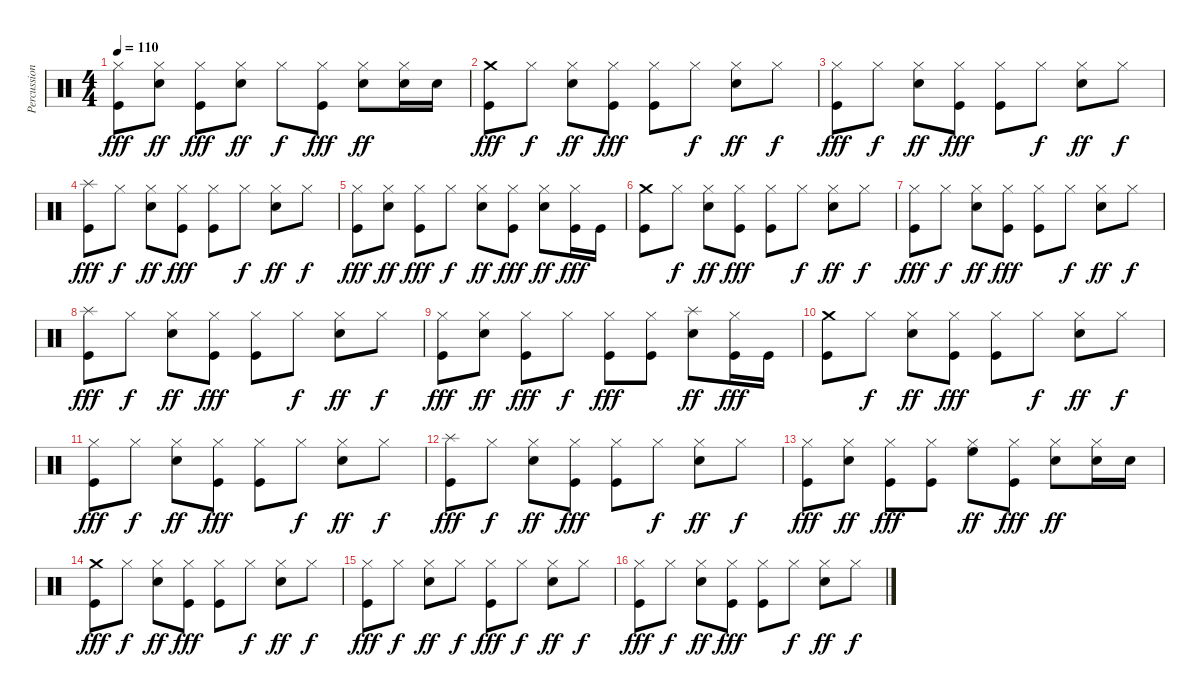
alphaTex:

\track ("Percussion" "Percussion") {instrument percussion}
\staff {score}
\articulation defaults
\ts (4 4)
\tempo 110
\clef neutral
\ks c
("Kick (hit)" "Hi-Hat (closed)").8{dy fff} ("Snare (hit) 2" "Hi-Hat (closed)").8{dy ff} ("Kick (hit)" "Hi-Hat (closed)").8{dy fff} ("Snare (hit) 2" "Hi-Hat (closed)").8{dy ff} "Hi-Hat (closed)".8{dy f} ("Kick (hit)" "Hi-Hat (closed)").8{dy fff} ("Snare (hit) 2" "Hi-Hat (closed)").8{dy ff} ("Snare (hit) 2" "Hi-Hat (closed)").16 "Snare (hit) 2".16 |
("Kick (hit)" "Crash medium (hit)").8{dy fff} "Hi-Hat (closed)".8{dy f} ("Snare (hit) 2" "Hi-Hat (closed)").8{dy ff} ("Kick (hit)" "Hi-Hat (closed)").8{dy fff} ("Kick (hit)" "Hi-Hat (closed)").8 "Hi-Hat (closed)".8{dy f} ("Snare (hit) 2" "Hi-Hat (closed)").8{dy ff} "Hi-Hat (closed)".8{dy f} |
("Kick (hit)" "Hi-Hat (closed)").8{dy fff} "Hi-Hat (closed)".8{dy f} ("Snare (hit) 2" "Hi-Hat (closed)").8{dy ff} ("Kick (hit)" "Hi-Hat (closed)").8{dy fff} ("Kick (hit)" "Hi-Hat (closed)").8 "Hi-Hat (closed)".8{dy f} ("Snare (hit) 2" "Hi-Hat (closed)").8{dy ff} "Hi-Hat (closed)".8{dy f} |
("Kick (hit)" "Splash (hit)").8{dy fff} "Hi-Hat (closed)".8{dy f} ("Snare (hit) 2" "Hi-Hat (closed)").8{dy ff} ("Kick (hit)" "Hi-Hat (closed)").8{dy fff} ("Kick (hit)" "Hi-Hat (closed)").8 "Hi-Hat (closed)".8{dy f} ("Snare (hit) 2" "Hi-Hat (closed)").8{dy ff} "Hi-Hat (closed)".8{dy f} |
("Kick (hit)" "Hi-Hat (closed)").8{dy fff} ("Snare (hit) 2" "Hi-Hat (closed)").8{dy ff} ("Kick (hit)" "Hi-Hat (closed)").8{dy fff} "Hi-Hat (closed)".8{dy f} ("Snare (hit) 2" "Hi-Hat (closed)").8{dy ff} ("Kick (hit)" "Hi-Hat (closed)").8{dy fff} ("Snare (hit) 2" "Hi-Hat (closed)").8{dy ff} ("Kick (hit)" "Hi-Hat (closed)").16{dy fff} "Kick (hit)".16 |
("Kick (hit)" "Crash medium (hit)").8 "Hi-Hat (closed)".8{dy f} ("Snare (hit) 2" "Hi-Hat (closed)").8{dy ff} ("Kick (hit)" "Hi-Hat (closed)").8{dy fff} ("Kick (hit)" "Hi-Hat (closed)").8 "Hi-Hat (closed)".8{dy f} ("Snare (hit) 2" "Hi-Hat (closed)").8{dy ff} "Hi-Hat (closed)".8{dy f} |
("Kick (hit)" "Hi-Hat (closed)").8{dy fff} "Hi-Hat (closed)".8{dy f} ("Snare (hit) 2" "Hi-Hat (closed)").8{dy ff} ("Kick (hit)" "Hi-Hat (closed)").8{dy fff} ("Kick (hit)" "Hi-Hat (closed)").8 "Hi-Hat (closed)".8{dy f} ("Snare (hit) 2" "Hi-Hat (closed)").8{dy ff} "Hi-Hat (closed)".8{dy f} |
("Kick (hit)" "Splash (hit)").8{dy fff} "Hi-Hat (closed)".8{dy f} ("Snare (hit) 2" "Hi-Hat (closed)").8{dy ff} ("Kick (hit)" "Hi-Hat (closed)").8{dy fff} ("Kick (hit)" "Hi-Hat (closed)").8 "Hi-Hat (closed)".8{dy f} ("Snare (hit) 2" "Hi-Hat (closed)").8{dy ff} "Hi-Hat (closed)".8{dy f} |
("Kick (hit)" "Hi-Hat (closed)").8{dy fff} ("Snare (hit) 2" "Hi-Hat (closed)").8{dy ff} ("Kick (hit)" "Hi-Hat (closed)").8{dy fff} "Hi-Hat (closed)".8{dy f} ("Kick (hit)" "Hi-Hat (closed)").8{dy fff} ("Kick (hit)" "Hi-Hat (closed)").8 ("Snare (hit) 2" "Splash (hit)").8{dy ff} ("Kick (hit)" "Hi-Hat (closed)").16{dy fff} "Kick (hit)".16 |
("Kick (hit)" "Crash medium (hit)").8 "Hi-Hat (closed)".8{dy f} ("Snare (hit) 2" "Hi-Hat (closed)").8{dy ff} ("Kick (hit)" "Hi-Hat (closed)").8{dy fff} ("Kick (hit)" "Hi-Hat (closed)").8 "Hi-Hat (closed)".8{dy f} ("Snare (hit) 2" "Hi-Hat (closed)").8{dy ff} "Hi-Hat (closed)".8{dy f} |
("Kick (hit)" "Hi-Hat (closed)").8{dy fff} "Hi-Hat (closed)".8{dy f} ("Snare (hit) 2" "Hi-Hat (closed)").8{dy ff} ("Kick (hit)" "Hi-Hat (closed)").8{dy fff} ("Kick (hit)" "Hi-Hat (closed)").8 "Hi-Hat (closed)".8{dy f} ("Snare (hit) 2" "Hi-Hat (closed)").8{dy ff} "Hi-Hat (closed)".8{dy f} |
("Kick (hit)" "Splash (hit)").8{dy fff} "Hi-Hat (closed)".8{dy f} ("Snare (hit) 2" "Hi-Hat (closed)").8{dy ff} ("Kick (hit)" "Hi-Hat (closed)").8{dy fff} ("Kick (hit)" "Hi-Hat (closed)").8 "Hi-Hat (closed)".8{dy f} ("Snare (hit) 2" "Hi-Hat (closed)").8{dy ff} "Hi-Hat (closed)".8{dy f} |
("Kick (hit)" "Hi-Hat (closed)").8{dy fff} ("Snare (hit) 2" "Hi-Hat (closed)").8{dy ff} ("Kick (hit)" "Hi-Hat (closed)").8{dy fff} ("Kick (hit)" "Hi-Hat (closed)").8 ("High Floor Tom (hit)" "Hi-Hat (closed)").8{dy ff} ("Kick (hit)" "Hi-Hat (closed)").8{dy fff} ("Snare (hit) 2" "Hi-Hat (closed)").8{dy ff} ("Snare (hit) 2" "Hi-Hat (closed)").16 "Snare (hit) 2".16 |
("Kick (hit)" "Crash medium (hit)").8{dy fff} "Hi-Hat (closed)".8{dy f} ("Snare (hit) 2" "Hi-Hat (closed)").8{dy ff} ("Kick (hit)" "Hi-Hat (closed)").8{dy fff} ("Kick (hit)" "Hi-Hat (closed)").8 "Hi-Hat (closed)".8{dy f} ("Snare (hit) 2" "Hi-Hat (closed)").8{dy ff} "Hi-Hat (closed)".8{dy f} |
("Kick (hit)" "Hi-Hat (closed)").8{dy fff} "Hi-Hat (closed)".8{dy f} ("Snare (hit) 2" "Hi-Hat (closed)").8{dy ff} "Hi-Hat (closed)".8{dy f} ("Kick (hit)" "Hi-Hat (closed)").8{dy fff} "Hi-Hat (closed)".8{dy f} ("Snare (hit) 2" "Hi-Hat (closed)").8{dy ff} "Hi-Hat (closed)".8{dy f} |
("Kick (hit)" "Hi-Hat (closed)").8{dy fff} "Hi-Hat (closed)".8{dy f} ("Snare (hit) 2" "Hi-Hat (closed)").8{dy ff} ("Kick (hit)" "Hi-Hat (closed)").8{dy fff} ("Kick (hit)" "Hi-Hat (closed)").8 "Hi-Hat (closed)".8{dy f} ("Snare (hit) 2" "Hi-Hat (closed)").8{dy ff} "Hi-Hat (closed)".8{dy f}
